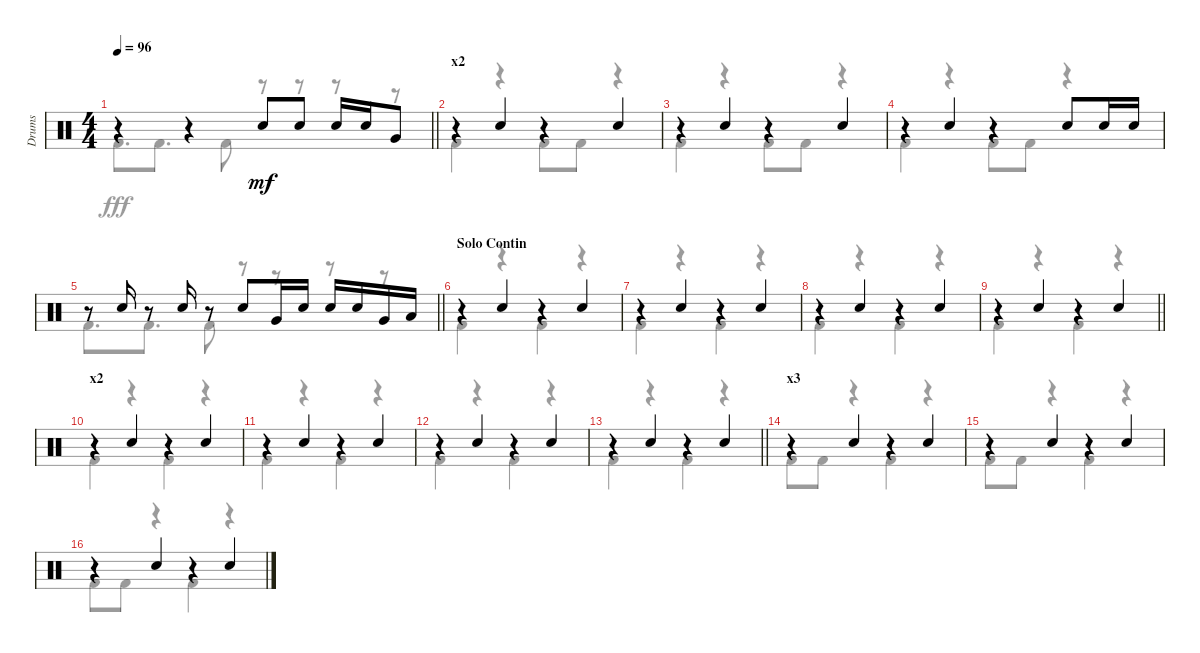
\track ("Drums" "Drums") {instrument percussion}
\staff {score}
\articulation defaults
\voice
\ts (4 4)
\tempo 96
\clef neutral
\barLineRight lightlight
\ks c
r.4{dy mf} r.4 "Snare (hit) 2".8 "Snare (hit) 2".8 "Snare (hit) 2".16 "Snare (hit) 2".16 "Very Low Tom (hit)".8 |
\section ("" "x2")
r.4 "Snare (hit) 2".4 r.4 "Snare (hit) 2".4 |
r.4 "Snare (hit) 2".4 r.4 "Snare (hit) 2".4 |
r.4 "Snare (hit) 2".4 r.4 "Snare (hit) 2".8 "Snare (hit) 2".16 "Snare (hit) 2".16 |
\barLineRight lightlight
r.8 "Snare (hit) 2".16 r.8 "Snare (hit) 2".16 r.8 "Snare (hit) 2".8 "Very Low Tom (hit)".16 "Snare (hit) 2".16 "Snare (hit) 2".16 "Snare (hit) 2".16 "Very Low Tom (hit)".16 "Low Floor Tom (hit)".16 |
\section ("" "Solo Contin")
r.4 "Snare (hit) 2".4 r.4 "Snare (hit) 2".4 |
r.4 "Snare (hit) 2".4 r.4 "Snare (hit) 2".4 |
r.4 "Snare (hit) 2".4 r.4 "Snare (hit) 2".4 |
\barLineRight lightlight
r.4 "Snare (hit) 2".4 r.4 "Snare (hit) 2".4 |
\section ("" "x2")
r.4 "Snare (hit) 2".4 r.4 "Snare (hit) 2".4 |
r.4 "Snare (hit) 2".4 r.4 "Snare (hit) 2".4 |
r.4 "Snare (hit) 2".4 r.4 "Snare (hit) 2".4 |
\barLineRight lightlight
r.4 "Snare (hit) 2".4 r.4 "Snare (hit) 2".4 |
\section ("" "x3")
r.4 "Snare (hit) 2".4 r.4 "Snare (hit) 2".4 |
r.4 "Snare (hit) 2".4 r.4 "Snare (hit) 2".4 |
r.4 "Snare (hit) 2".4 r.4 "Snare (hit) 2".4
\voice
\clef neutral
\ottava regular
\simile none
\barLineRight lightlight
\ks c "Kick (hit) 2".8{d dy fff} "Kick (hit) 2".8{d} "Kick (hit) 2".8
r.8 r.8 r.8 r.8 |
"Kick (hit) 2".4 r.4 "Kick (hit) 2".8 "Kick (hit) 2".8 r.4 |
"Kick (hit) 2".4 r.4 "Kick (hit) 2".8 "Kick (hit) 2".8 r.4 |
"Kick (hit) 2".4 r.4 "Kick (hit) 2".8 "Kick (hit) 2".8 r.4 |
\barLineRight lightlight "Kick (hit) 2".8{d} "Kick (hit) 2".8{d} "Kick (hit) 2".8
r.8 r.8 r.8 r.8 |
"Kick (hit) 2".4 r.4 "Kick (hit) 2".4 r.4 |
"Kick (hit) 2".4 r.4 "Kick (hit) 2".4 r.4 |
"Kick (hit) 2".4 r.4 "Kick (hit) 2".4 r.4 |
\barLineRight lightlight "Kick (hit) 2".4
r.4 "Kick (hit) 2".4 r.4 |
"Kick (hit) 2".4 r.4 "Kick (hit) 2".4 r.4 |
"Kick (hit) 2".4 r.4 "Kick (hit) 2".4 r.4 |
"Kick (hit) 2".4 r.4 "Kick (hit) 2".4 r.4 |
\barLineRight lightlight "Kick (hit) 2".4
r.4 "Kick (hit) 2".4 r.4 |
"Kick (hit) 2".8 "Kick (hit) 2".8 r.4 "Kick (hit) 2".4 r.4 |
"Kick (hit) 2".8 "Kick (hit) 2".8 r.4 "Kick (hit) 2".4 r.4 |
"Kick (hit) 2".8 "Kick (hit) 2".8 r.4 "Kick (hit) 2".4 r.4
